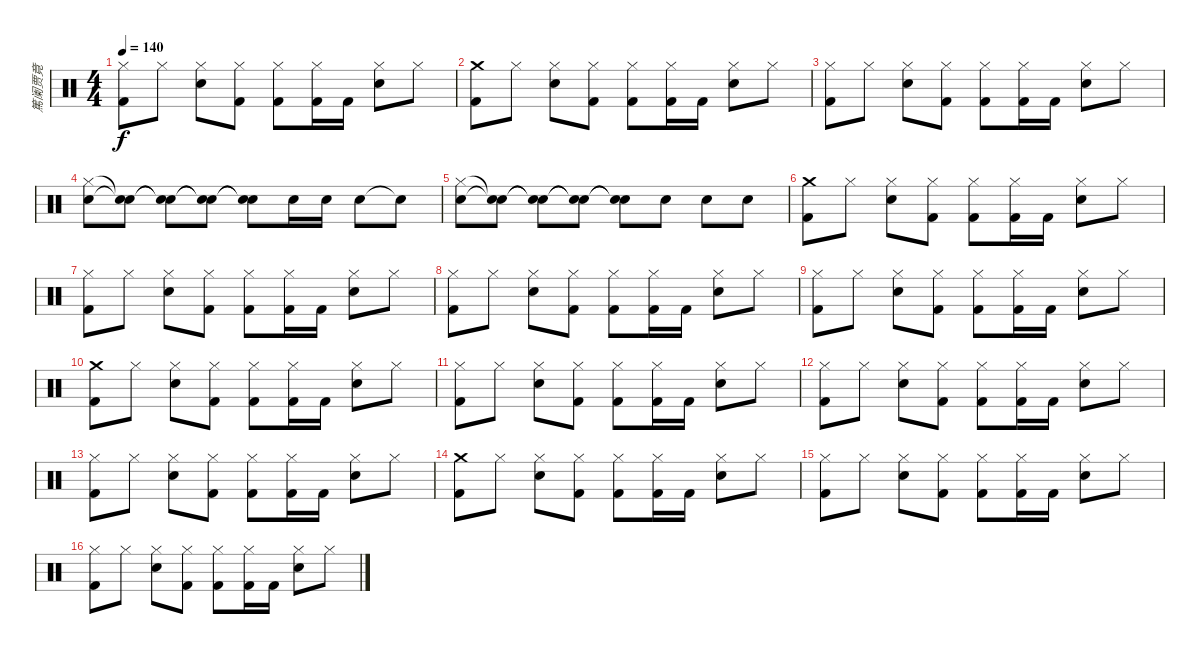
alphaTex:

\track ("篤阑贾竟" "篤阑贾竟") {instrument percussion}
\staff {score}
\articulation defaults
\ts (4 4)
\tempo 140
\clef neutral
\ks c
("Hi-Hat (closed)" "Kick (hit) 2").8{dy f} "Hi-Hat (closed)".8 ("Hi-Hat (closed)" "Snare (hit) 2").8 ("Hi-Hat (closed)" "Kick (hit) 2").8 ("Hi-Hat (closed)" "Kick (hit) 2").8 ("Hi-Hat (closed)" "Kick (hit) 2").16 "Kick (hit) 2".16 ("Hi-Hat (closed)" "Snare (hit) 2").8 "Hi-Hat (closed)".8 |
("Crash medium (hit)" "Kick (hit) 2").8 "Hi-Hat (closed)".8 ("Hi-Hat (closed)" "Snare (hit) 2").8 ("Hi-Hat (closed)" "Kick (hit) 2").8 ("Hi-Hat (closed)" "Kick (hit) 2").8 ("Hi-Hat (closed)" "Kick (hit) 2").16 "Kick (hit) 2".16 ("Hi-Hat (closed)" "Snare (hit) 2").8 "Hi-Hat (closed)".8 |
("Hi-Hat (closed)" "Kick (hit) 2").8 "Hi-Hat (closed)".8 ("Hi-Hat (closed)" "Snare (hit) 2").8 ("Hi-Hat (closed)" "Kick (hit) 2").8 ("Hi-Hat (closed)" "Kick (hit) 2").8 ("Hi-Hat (closed)" "Kick (hit) 2").16 "Kick (hit) 2".16 ("Hi-Hat (closed)" "Snare (hit) 2").8 "Hi-Hat (closed)".8 |
("Hi-Hat (closed)" "Snare (hit) 2").8 ("Snare (hit)"{t} "Snare (hit)"{t}).8 ("Snare (hit)"{t} "Snare (hit)"{t}).8 ("Snare (hit)"{t} "Snare (hit)"{t}).8 ("Snare (hit)"{t} "Snare (hit)"{t}).8 "Snare (hit) 2".16 "Snare (hit) 2".16 "Snare (hit) 2".8 "Snare (hit)"{t}.8 |
("Hi-Hat (closed)" "Snare (hit) 2").8 ("Snare (hit)"{t} "Snare (hit)"{t}).8 ("Snare (hit)"{t} "Snare (hit)"{t}).8 ("Snare (hit)"{t} "Snare (hit)"{t}).8 ("Snare (hit)"{t} "Snare (hit)"{t}).8 "Snare (hit) 2".8 "Snare (hit) 2".8 "Snare (hit) 2".8 |
("Crash medium (hit)" "Kick (hit) 2").8 "Hi-Hat (closed)".8 ("Hi-Hat (closed)" "Snare (hit) 2").8 ("Hi-Hat (closed)" "Kick (hit) 2").8 ("Hi-Hat (closed)" "Kick (hit) 2").8 ("Hi-Hat (closed)" "Kick (hit) 2").16 "Kick (hit) 2".16 ("Hi-Hat (closed)" "Snare (hit) 2").8 "Hi-Hat (closed)".8 |
("Hi-Hat (closed)" "Kick (hit) 2").8 "Hi-Hat (closed)".8 ("Hi-Hat (closed)" "Snare (hit) 2").8 ("Hi-Hat (closed)" "Kick (hit) 2").8 ("Hi-Hat (closed)" "Kick (hit) 2").8 ("Hi-Hat (closed)" "Kick (hit) 2").16 "Kick (hit) 2".16 ("Hi-Hat (closed)" "Snare (hit) 2").8 "Hi-Hat (closed)".8 |
("Hi-Hat (closed)" "Kick (hit) 2").8 "Hi-Hat (closed)".8 ("Hi-Hat (closed)" "Snare (hit) 2").8 ("Hi-Hat (closed)" "Kick (hit) 2").8 ("Hi-Hat (closed)" "Kick (hit) 2").8 ("Hi-Hat (closed)" "Kick (hit) 2").16 "Kick (hit) 2".16 ("Hi-Hat (closed)" "Snare (hit) 2").8 "Hi-Hat (closed)".8 |
("Hi-Hat (closed)" "Kick (hit) 2").8 "Hi-Hat (closed)".8 ("Hi-Hat (closed)" "Snare (hit) 2").8 ("Hi-Hat (closed)" "Kick (hit) 2").8 ("Hi-Hat (closed)" "Kick (hit) 2").8 ("Hi-Hat (closed)" "Kick (hit) 2").16 "Kick (hit) 2".16 ("Hi-Hat (closed)" "Snare (hit) 2").8 "Hi-Hat (closed)".8 |
("Crash medium (hit)" "Kick (hit) 2").8 "Hi-Hat (closed)".8 ("Hi-Hat (closed)" "Snare (hit) 2").8 ("Hi-Hat (closed)" "Kick (hit) 2").8 ("Hi-Hat (closed)" "Kick (hit) 2").8 ("Hi-Hat (closed)" "Kick (hit) 2").16 "Kick (hit) 2".16 ("Hi-Hat (closed)" "Snare (hit) 2").8 "Hi-Hat (closed)".8 |
("Hi-Hat (closed)" "Kick (hit) 2").8 "Hi-Hat (closed)".8 ("Hi-Hat (closed)" "Snare (hit) 2").8 ("Hi-Hat (closed)" "Kick (hit) 2").8 ("Hi-Hat (closed)" "Kick (hit) 2").8 ("Hi-Hat (closed)" "Kick (hit) 2").16 "Kick (hit) 2".16 ("Hi-Hat (closed)" "Snare (hit) 2").8 "Hi-Hat (closed)".8 |
("Hi-Hat (closed)" "Kick (hit) 2").8 "Hi-Hat (closed)".8 ("Hi-Hat (closed)" "Snare (hit) 2").8 ("Hi-Hat (closed)" "Kick (hit) 2").8 ("Hi-Hat (closed)" "Kick (hit) 2").8 ("Hi-Hat (closed)" "Kick (hit) 2").16 "Kick (hit) 2".16 ("Hi-Hat (closed)" "Snare (hit) 2").8 "Hi-Hat (closed)".8 |
("Hi-Hat (closed)" "Kick (hit) 2").8 "Hi-Hat (closed)".8 ("Hi-Hat (closed)" "Snare (hit) 2").8 ("Hi-Hat (closed)" "Kick (hit) 2").8 ("Hi-Hat (closed)" "Kick (hit) 2").8 ("Hi-Hat (closed)" "Kick (hit) 2").16 "Kick (hit) 2".16 ("Hi-Hat (closed)" "Snare (hit) 2").8 "Hi-Hat (closed)".8 |
("Crash medium (hit)" "Kick (hit) 2").8 "Hi-Hat (closed)".8 ("Hi-Hat (closed)" "Snare (hit) 2").8 ("Hi-Hat (closed)" "Kick (hit) 2").8 ("Hi-Hat (closed)" "Kick (hit) 2").8 ("Hi-Hat (closed)" "Kick (hit) 2").16 "Kick (hit) 2".16 ("Hi-Hat (closed)" "Snare (hit) 2").8 "Hi-Hat (closed)".8 |
("Hi-Hat (closed)" "Kick (hit) 2").8 "Hi-Hat (closed)".8 ("Hi-Hat (closed)" "Snare (hit) 2").8 ("Hi-Hat (closed)" "Kick (hit) 2").8 ("Hi-Hat (closed)" "Kick (hit) 2").8 ("Hi-Hat (closed)" "Kick (hit) 2").16 "Kick (hit) 2".16 ("Hi-Hat (closed)" "Snare (hit) 2").8 "Hi-Hat (closed)".8 |
("Hi-Hat (closed)" "Kick (hit) 2").8 "Hi-Hat (closed)".8 ("Hi-Hat (closed)" "Snare (hit) 2").8 ("Hi-Hat (closed)" "Kick (hit) 2").8 ("Hi-Hat (closed)" "Kick (hit) 2").8 ("Hi-Hat (closed)" "Kick (hit) 2").16 "Kick (hit) 2".16 ("Hi-Hat (closed)" "Snare (hit) 2").8 "Hi-Hat (closed)".8
